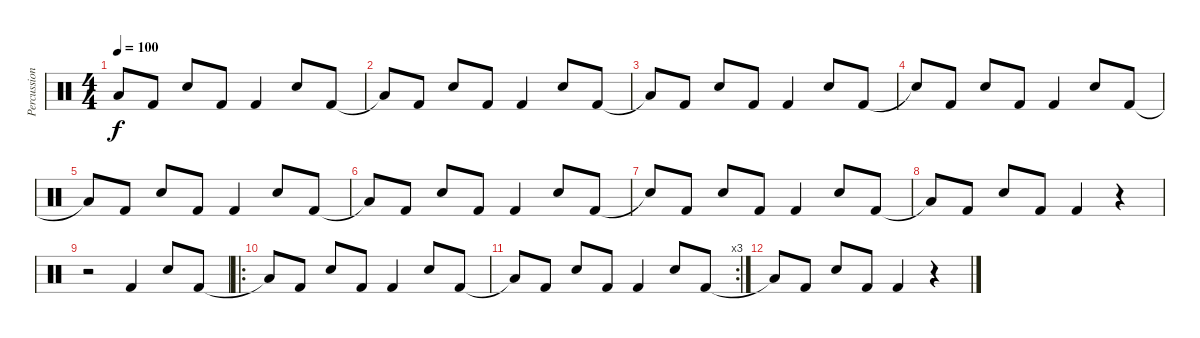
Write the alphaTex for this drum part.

\track ("Percussions" "Percussion") {instrument percussion}
\staff {score}
\articulation defaults
\ts (4 4)
\tempo 100
\clef neutral
\ks c "Low Tom (hit)"{t}.8{dy f} "Kick (hit) 2".8 "Snare (hit) 2".8 "Kick (hit) 2".8 "Kick (hit) 2".4 "Snare (hit) 2".8 "Kick (hit) 2".8
|
"Low Tom (hit)"{t}.8 "Kick (hit) 2".8 "Snare (hit) 2".8 "Kick (hit) 2".8 "Kick (hit) 2".4 "Snare (hit) 2".8 "Kick (hit) 2".8 |
"Low Tom (hit)"{t}.8 "Kick (hit) 2".8 "Snare (hit) 2".8 "Kick (hit) 2".8 "Kick (hit) 2".4 "Snare (hit) 2".8 "Kick (hit) 2".8 |
"Snare (hit)"{t}.8 "Kick (hit) 2".8 "Snare (hit) 2".8 "Kick (hit) 2".8 "Kick (hit) 2".4 "Snare (hit) 2".8 "Kick (hit) 2".8 |
"Low Tom (hit)"{t}.8 "Kick (hit) 2".8 "Snare (hit) 2".8 "Kick (hit) 2".8 "Kick (hit) 2".4 "Snare (hit) 2".8 "Kick (hit) 2".8 |
"Low Tom (hit)"{t}.8 "Kick (hit) 2".8 "Snare (hit) 2".8 "Kick (hit) 2".8 "Kick (hit) 2".4 "Snare (hit) 2".8 "Kick (hit) 2".8 |
"Snare (hit)"{t}.8 "Kick (hit) 2".8 "Snare (hit) 2".8 "Kick (hit) 2".8 "Kick (hit) 2".4 "Snare (hit) 2".8 "Kick (hit) 2".8 |
"Low Tom (hit)"{t}.8 "Kick (hit) 2".8 "Snare (hit) 2".8 "Kick (hit) 2".8 "Kick (hit) 2".4 r.4 |
r.2 "Kick (hit) 2".4 "Snare (hit) 2".8 "Kick (hit) 2".8 |
\ro "Low Tom (hit)"{t}.8 "Kick (hit) 2".8 "Snare (hit) 2".8 "Kick (hit) 2".8 "Kick (hit) 2".4 "Snare (hit) 2".8 "Kick (hit) 2".8
|
\rc 3 "Low Tom (hit)"{t}.8 "Kick (hit) 2".8 "Snare (hit) 2".8 "Kick (hit) 2".8 "Kick (hit) 2".4 "Snare (hit) 2".8 "Kick (hit) 2".8
|
"Low Tom (hit)"{t}.8 "Kick (hit) 2".8 "Snare (hit) 2".8 "Kick (hit) 2".8 "Kick (hit) 2".4 r.4
